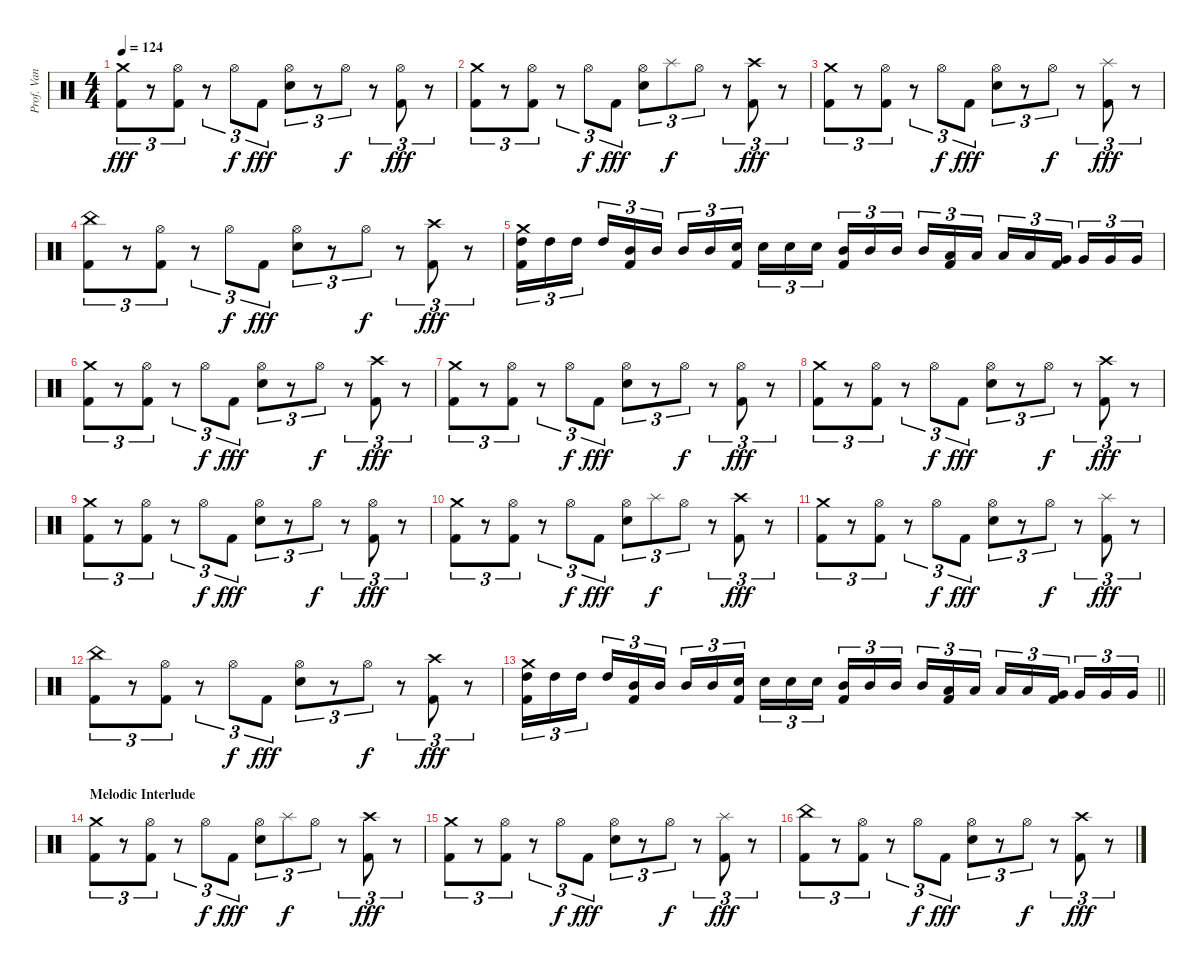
\track ("Prof. Van Helsing (Drums)" "Prof. Van ") {instrument percussion}
\staff {score}
\articulation defaults
\ts (4 4)
\tempo 124
\clef neutral
\ks c
("Crash medium (hit)" "Kick (hit) 2").8{tu (3 2) dy fff} r.8{tu (3 2)} ("Hi-Hat (open)" "Kick (hit) 2").8{tu (3 2)} r.8{tu (3 2)} "Hi-Hat (open)".8{tu (3 2) dy f} "Kick (hit) 2".8{tu (3 2) dy fff} ("Hi-Hat (open)" "Snare (hit) 2").8{tu (3 2)} r.8{tu (3 2)} "Hi-Hat (open)".8{tu (3 2) dy f} r.8{tu (3 2)} ("Hi-Hat (open)" "Kick (hit) 2").8{tu (3 2) dy fff} r.8{tu (3 2)} |
("Crash medium (hit)" "Kick (hit) 2").8{tu (3 2)} r.8{tu (3 2)} ("Hi-Hat (open)" "Kick (hit) 2").8{tu (3 2)} r.8{tu (3 2)} "Hi-Hat (open)".8{tu (3 2) dy f} "Kick (hit) 2".8{tu (3 2) dy fff} ("Hi-Hat (open)" "Snare (hit) 2").8{tu (3 2)} "Splash (hit)".8{tu (3 2) dy f} "Hi-Hat (open)".8{tu (3 2)} r.8{tu (3 2)} ("Crash high (hit)" "Kick (hit) 2").8{tu (3 2) dy fff} r.8{tu (3 2)} |
("Crash medium (hit)" "Kick (hit) 2").8{tu (3 2)} r.8{tu (3 2)} ("Hi-Hat (open)" "Kick (hit) 2").8{tu (3 2)} r.8{tu (3 2)} "Hi-Hat (open)".8{tu (3 2) dy f} "Kick (hit) 2".8{tu (3 2) dy fff} ("Hi-Hat (open)" "Snare (hit) 2").8{tu (3 2)} r.8{tu (3 2)} "Hi-Hat (open)".8{tu (3 2) dy f} r.8{tu (3 2)} ("Splash (hit)" "Kick (hit) 2").8{tu (3 2) dy fff} r.8{tu (3 2)} |
("China (hit)" "Kick (hit) 2").8{tu (3 2)} r.8{tu (3 2)} ("Hi-Hat (open)" "Kick (hit) 2").8{tu (3 2)} r.8{tu (3 2)} "Hi-Hat (open)".8{tu (3 2) dy f} "Kick (hit) 2".8{tu (3 2) dy fff} ("Hi-Hat (open)" "Snare (hit) 2").8{tu (3 2)} r.8{tu (3 2)} "Hi-Hat (open)".8{tu (3 2) dy f} r.8{tu (3 2)} ("Crash high (hit)" "Kick (hit) 2").8{tu (3 2) dy fff} r.8{tu (3 2)} |
("Crash medium (hit)" "High Tom (hit)" "Kick (hit) 2").16{tu (3 2)} "High Tom (hit)".16{tu (3 2)} "High Tom (hit)".16{tu (3 2) beam splitsecondary} "High Tom (hit)".16{tu (3 2)} ("Mid Tom (hit)" "Kick (hit) 2").16{tu (3 2)} "Mid Tom (hit)".16{tu (3 2)} "Mid Tom (hit)".16{tu (3 2)} "Mid Tom (hit)".16{tu (3 2)} ("Snare (hit) 2" "Kick (hit) 2").16{tu (3 2) beam splitsecondary} "Snare (hit) 2".16{tu (3 2)} "Snare (hit) 2".16{tu (3 2)} "Snare (hit) 2".16{tu (3 2)} ("Mid Tom (hit)" "Kick (hit) 2").16{tu (3 2)} "Mid Tom (hit)".16{tu (3 2)} "Mid Tom (hit)".16{tu (3 2) beam splitsecondary} "Mid Tom (hit)".16{tu (3 2)} ("Low Tom (hit)" "Kick (hit) 2").16{tu (3 2)} "Low Tom (hit)".16{tu (3 2)} "Low Tom (hit)".16{tu (3 2)} "Low Tom (hit)".16{tu (3 2)} ("Very Low Tom (hit)" "Kick (hit) 2").16{tu (3 2) beam splitsecondary} "Very Low Tom (hit)".16{tu (3 2)} "Very Low Tom (hit)".16{tu (3 2)} "Very Low Tom (hit)".16{tu (3 2)} |
("Crash medium (hit)" "Kick (hit) 2").8{tu (3 2)} r.8{tu (3 2)} ("Hi-Hat (open)" "Kick (hit) 2").8{tu (3 2)} r.8{tu (3 2)} "Hi-Hat (open)".8{tu (3 2) dy f} "Kick (hit) 2".8{tu (3 2) dy fff} ("Hi-Hat (open)" "Snare (hit) 2").8{tu (3 2)} r.8{tu (3 2)} "Hi-Hat (open)".8{tu (3 2) dy f} r.8{tu (3 2)} ("Crash high (hit)" "Kick (hit) 2").8{tu (3 2) dy fff} r.8{tu (3 2)} |
("Crash medium (hit)" "Kick (hit) 2").8{tu (3 2)} r.8{tu (3 2)} ("Hi-Hat (open)" "Kick (hit) 2").8{tu (3 2)} r.8{tu (3 2)} "Hi-Hat (open)".8{tu (3 2) dy f} "Kick (hit) 2".8{tu (3 2) dy fff} ("Hi-Hat (open)" "Snare (hit) 2").8{tu (3 2)} r.8{tu (3 2)} "Hi-Hat (open)".8{tu (3 2) dy f} r.8{tu (3 2)} ("Hi-Hat (open)" "Kick (hit) 2").8{tu (3 2) dy fff} r.8{tu (3 2)} |
("Crash medium (hit)" "Kick (hit) 2").8{tu (3 2)} r.8{tu (3 2)} ("Hi-Hat (open)" "Kick (hit) 2").8{tu (3 2)} r.8{tu (3 2)} "Hi-Hat (open)".8{tu (3 2) dy f} "Kick (hit) 2".8{tu (3 2) dy fff} ("Hi-Hat (open)" "Snare (hit) 2").8{tu (3 2)} r.8{tu (3 2)} "Hi-Hat (open)".8{tu (3 2) dy f} r.8{tu (3 2)} ("Crash high (hit)" "Kick (hit) 2").8{tu (3 2) dy fff} r.8{tu (3 2)} |
("Crash medium (hit)" "Kick (hit) 2").8{tu (3 2)} r.8{tu (3 2)} ("Hi-Hat (open)" "Kick (hit) 2").8{tu (3 2)} r.8{tu (3 2)} "Hi-Hat (open)".8{tu (3 2) dy f} "Kick (hit) 2".8{tu (3 2) dy fff} ("Hi-Hat (open)" "Snare (hit) 2").8{tu (3 2)} r.8{tu (3 2)} "Hi-Hat (open)".8{tu (3 2) dy f} r.8{tu (3 2)} ("Hi-Hat (open)" "Kick (hit) 2").8{tu (3 2) dy fff} r.8{tu (3 2)} |
("Crash medium (hit)" "Kick (hit) 2").8{tu (3 2)} r.8{tu (3 2)} ("Hi-Hat (open)" "Kick (hit) 2").8{tu (3 2)} r.8{tu (3 2)} "Hi-Hat (open)".8{tu (3 2) dy f} "Kick (hit) 2".8{tu (3 2) dy fff} ("Hi-Hat (open)" "Snare (hit) 2").8{tu (3 2)} "Splash (hit)".8{tu (3 2) dy f} "Hi-Hat (open)".8{tu (3 2)} r.8{tu (3 2)} ("Crash high (hit)" "Kick (hit) 2").8{tu (3 2) dy fff} r.8{tu (3 2)} |
("Crash medium (hit)" "Kick (hit) 2").8{tu (3 2)} r.8{tu (3 2)} ("Hi-Hat (open)" "Kick (hit) 2").8{tu (3 2)} r.8{tu (3 2)} "Hi-Hat (open)".8{tu (3 2) dy f} "Kick (hit) 2".8{tu (3 2) dy fff} ("Hi-Hat (open)" "Snare (hit) 2").8{tu (3 2)} r.8{tu (3 2)} "Hi-Hat (open)".8{tu (3 2) dy f} r.8{tu (3 2)} ("Splash (hit)" "Kick (hit) 2").8{tu (3 2) dy fff} r.8{tu (3 2)} |
("China (hit)" "Kick (hit) 2").8{tu (3 2)} r.8{tu (3 2)} ("Hi-Hat (open)" "Kick (hit) 2").8{tu (3 2)} r.8{tu (3 2)} "Hi-Hat (open)".8{tu (3 2) dy f} "Kick (hit) 2".8{tu (3 2) dy fff} ("Hi-Hat (open)" "Snare (hit) 2").8{tu (3 2)} r.8{tu (3 2)} "Hi-Hat (open)".8{tu (3 2) dy f} r.8{tu (3 2)} ("Crash high (hit)" "Kick (hit) 2").8{tu (3 2) dy fff} r.8{tu (3 2)} |
\barLineRight lightlight
("Crash medium (hit)" "High Tom (hit)" "Kick (hit) 2").16{tu (3 2)} "High Tom (hit)".16{tu (3 2)} "High Tom (hit)".16{tu (3 2) beam splitsecondary} "High Tom (hit)".16{tu (3 2)} ("Mid Tom (hit)" "Kick (hit) 2").16{tu (3 2)} "Mid Tom (hit)".16{tu (3 2)} "Mid Tom (hit)".16{tu (3 2)} "Mid Tom (hit)".16{tu (3 2)} ("Snare (hit) 2" "Kick (hit) 2").16{tu (3 2) beam splitsecondary} "Snare (hit) 2".16{tu (3 2)} "Snare (hit) 2".16{tu (3 2)} "Snare (hit) 2".16{tu (3 2)} ("Mid Tom (hit)" "Kick (hit) 2").16{tu (3 2)} "Mid Tom (hit)".16{tu (3 2)} "Mid Tom (hit)".16{tu (3 2) beam splitsecondary} "Mid Tom (hit)".16{tu (3 2)} ("Low Tom (hit)" "Kick (hit) 2").16{tu (3 2)} "Low Tom (hit)".16{tu (3 2)} "Low Tom (hit)".16{tu (3 2)} "Low Tom (hit)".16{tu (3 2)} ("Very Low Tom (hit)" "Kick (hit) 2").16{tu (3 2) beam splitsecondary} "Very Low Tom (hit)".16{tu (3 2)} "Very Low Tom (hit)".16{tu (3 2)} "Very Low Tom (hit)".16{tu (3 2)} |
\section ("" "Melodic Interlude")
("Crash medium (hit)" "Kick (hit) 2").8{tu (3 2)} r.8{tu (3 2)} ("Hi-Hat (open)" "Kick (hit) 2").8{tu (3 2)} r.8{tu (3 2)} "Hi-Hat (open)".8{tu (3 2) dy f} "Kick (hit) 2".8{tu (3 2) dy fff} ("Hi-Hat (open)" "Snare (hit) 2").8{tu (3 2)} "Splash (hit)".8{tu (3 2) dy f} "Hi-Hat (open)".8{tu (3 2)} r.8{tu (3 2)} ("Crash high (hit)" "Kick (hit) 2").8{tu (3 2) dy fff} r.8{tu (3 2)} |
("Crash medium (hit)" "Kick (hit) 2").8{tu (3 2)} r.8{tu (3 2)} ("Hi-Hat (open)" "Kick (hit) 2").8{tu (3 2)} r.8{tu (3 2)} "Hi-Hat (open)".8{tu (3 2) dy f} "Kick (hit) 2".8{tu (3 2) dy fff} ("Hi-Hat (open)" "Snare (hit) 2").8{tu (3 2)} r.8{tu (3 2)} "Hi-Hat (open)".8{tu (3 2) dy f} r.8{tu (3 2)} ("Splash (hit)" "Kick (hit) 2").8{tu (3 2) dy fff} r.8{tu (3 2)} |
("China (hit)" "Kick (hit) 2").8{tu (3 2)} r.8{tu (3 2)} ("Hi-Hat (open)" "Kick (hit) 2").8{tu (3 2)} r.8{tu (3 2)} "Hi-Hat (open)".8{tu (3 2) dy f} "Kick (hit) 2".8{tu (3 2) dy fff} ("Hi-Hat (open)" "Snare (hit) 2").8{tu (3 2)} r.8{tu (3 2)} "Hi-Hat (open)".8{tu (3 2) dy f} r.8{tu (3 2)} ("Crash high (hit)" "Kick (hit) 2").8{tu (3 2) dy fff} r.8{tu (3 2)}
